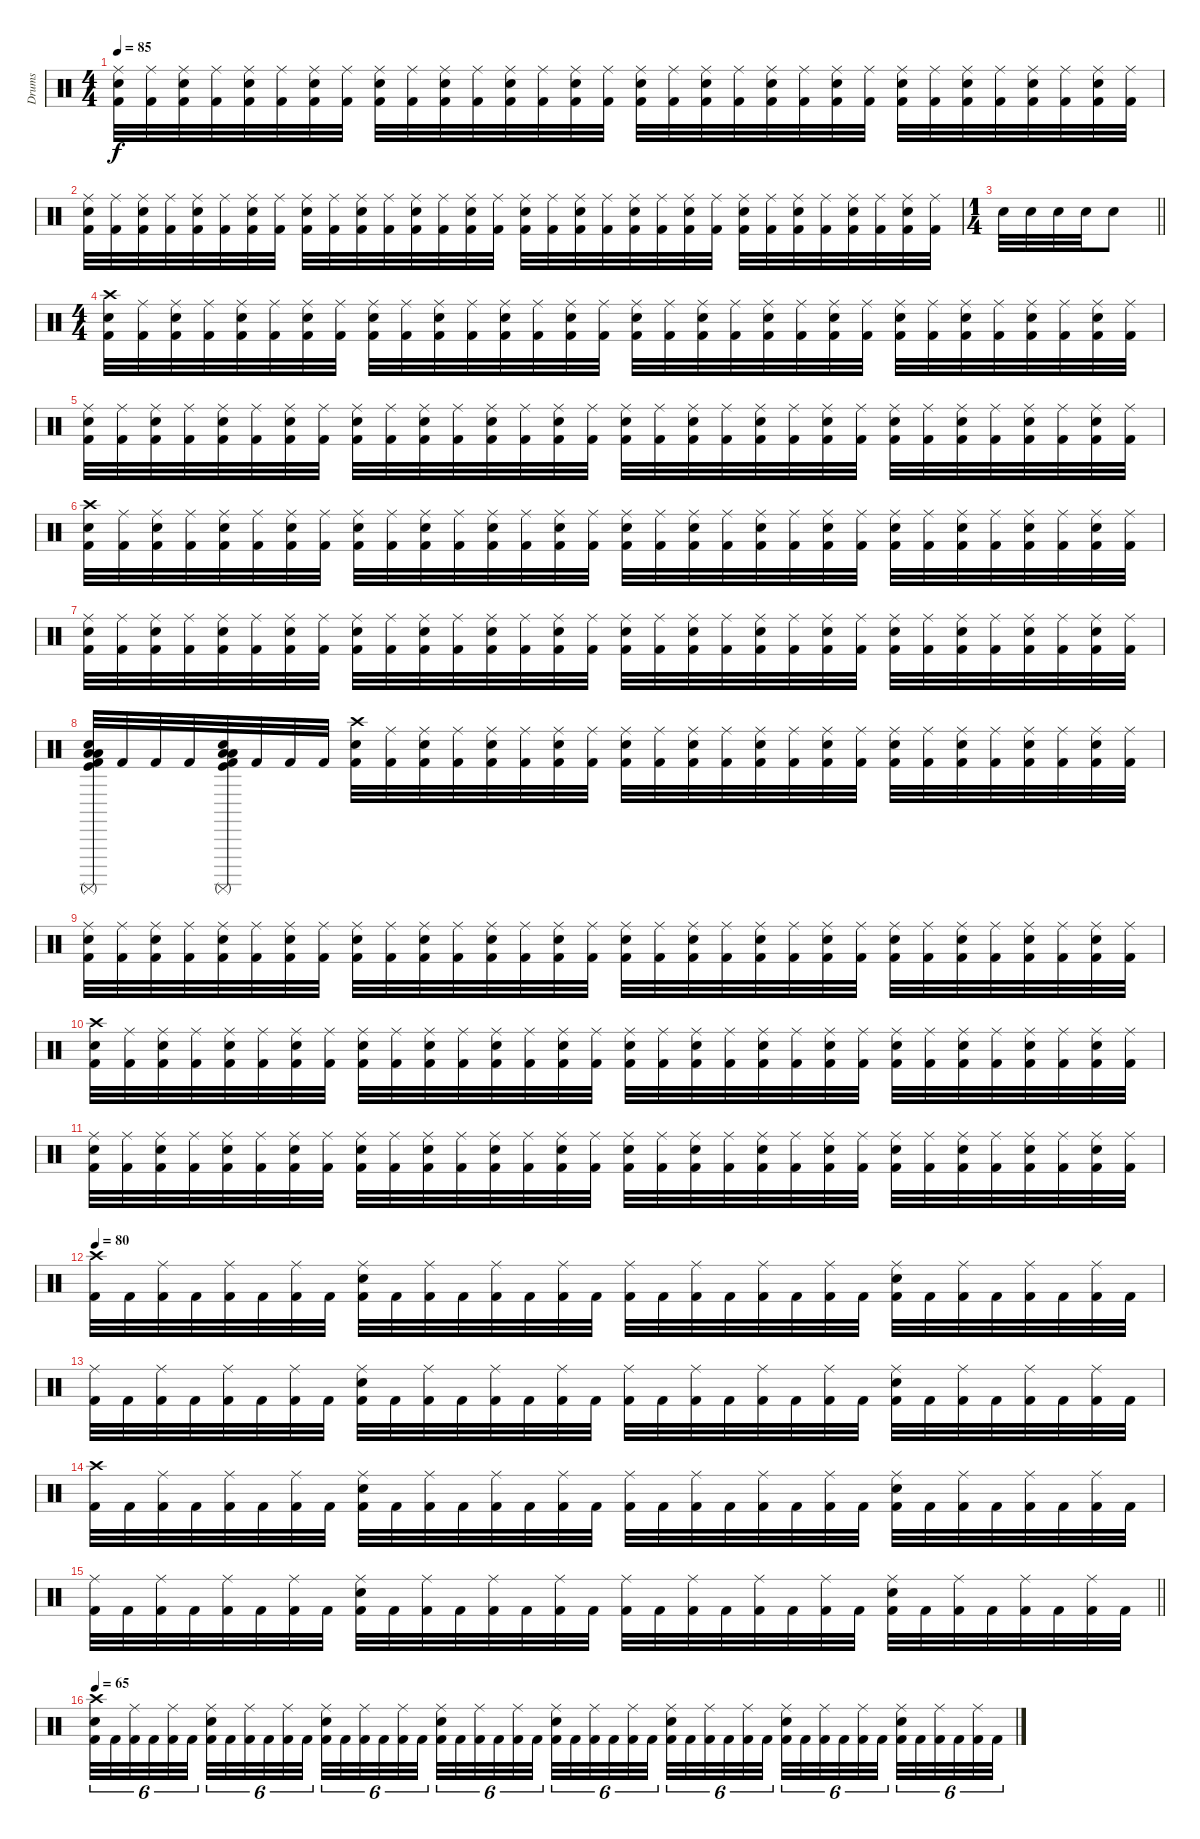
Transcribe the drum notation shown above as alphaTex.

\track ("Drums" "Drums") {instrument percussion}
\staff {score}
\articulation defaults
\ts (4 4)
\tempo 85
\clef neutral
\ks c
("Ride (middle)" "Electric Snare (hit)" "Kick (hit) 2").32{dy f} ("Ride (middle)" "Kick (hit) 2").32 ("Ride (middle)" "Electric Snare (hit)" "Kick (hit) 2").32 ("Ride (middle)" "Kick (hit) 2").32 ("Ride (middle)" "Electric Snare (hit)" "Kick (hit) 2").32 ("Ride (middle)" "Kick (hit) 2").32 ("Ride (middle)" "Electric Snare (hit)" "Kick (hit) 2").32 ("Ride (middle)" "Kick (hit) 2").32 ("Ride (middle)" "Electric Snare (hit)" "Kick (hit) 2").32 ("Ride (middle)" "Kick (hit) 2").32 ("Ride (middle)" "Electric Snare (hit)" "Kick (hit) 2").32 ("Ride (middle)" "Kick (hit) 2").32 ("Ride (middle)" "Electric Snare (hit)" "Kick (hit) 2").32 ("Ride (middle)" "Kick (hit) 2").32 ("Ride (middle)" "Electric Snare (hit)" "Kick (hit) 2").32 ("Ride (middle)" "Kick (hit) 2").32 ("Ride (middle)" "Electric Snare (hit)" "Kick (hit) 2").32 ("Ride (middle)" "Kick (hit) 2").32 ("Ride (middle)" "Electric Snare (hit)" "Kick (hit) 2").32 ("Ride (middle)" "Kick (hit) 2").32 ("Ride (middle)" "Electric Snare (hit)" "Kick (hit) 2").32 ("Ride (middle)" "Kick (hit) 2").32 ("Ride (middle)" "Electric Snare (hit)" "Kick (hit) 2").32 ("Ride (middle)" "Kick (hit) 2").32 ("Ride (middle)" "Electric Snare (hit)" "Kick (hit) 2").32 ("Ride (middle)" "Kick (hit) 2").32 ("Ride (middle)" "Electric Snare (hit)" "Kick (hit) 2").32 ("Ride (middle)" "Kick (hit) 2").32 ("Ride (middle)" "Electric Snare (hit)" "Kick (hit) 2").32 ("Ride (middle)" "Kick (hit) 2").32 ("Ride (middle)" "Electric Snare (hit)" "Kick (hit) 2").32 ("Ride (middle)" "Kick (hit) 2").32 |
("Ride (middle)" "Electric Snare (hit)" "Kick (hit) 2").32 ("Ride (middle)" "Kick (hit) 2").32 ("Ride (middle)" "Electric Snare (hit)" "Kick (hit) 2").32 ("Ride (middle)" "Kick (hit) 2").32 ("Ride (middle)" "Electric Snare (hit)" "Kick (hit) 2").32 ("Ride (middle)" "Kick (hit) 2").32 ("Ride (middle)" "Electric Snare (hit)" "Kick (hit) 2").32 ("Ride (middle)" "Kick (hit) 2").32 ("Ride (middle)" "Electric Snare (hit)" "Kick (hit) 2").32 ("Ride (middle)" "Kick (hit) 2").32 ("Ride (middle)" "Electric Snare (hit)" "Kick (hit) 2").32 ("Ride (middle)" "Kick (hit) 2").32 ("Ride (middle)" "Electric Snare (hit)" "Kick (hit) 2").32 ("Ride (middle)" "Kick (hit) 2").32 ("Ride (middle)" "Electric Snare (hit)" "Kick (hit) 2").32 ("Ride (middle)" "Kick (hit) 2").32 ("Ride (middle)" "Electric Snare (hit)" "Kick (hit) 2").32 ("Ride (middle)" "Kick (hit) 2").32 ("Ride (middle)" "Electric Snare (hit)" "Kick (hit) 2").32 ("Ride (middle)" "Kick (hit) 2").32 ("Ride (middle)" "Electric Snare (hit)" "Kick (hit) 2").32 ("Ride (middle)" "Kick (hit) 2").32 ("Ride (middle)" "Electric Snare (hit)" "Kick (hit) 2").32 ("Ride (middle)" "Kick (hit) 2").32 ("Ride (middle)" "Electric Snare (hit)" "Kick (hit) 2").32 ("Ride (middle)" "Kick (hit) 2").32 ("Ride (middle)" "Electric Snare (hit)" "Kick (hit) 2").32 ("Ride (middle)" "Kick (hit) 2").32 ("Ride (middle)" "Electric Snare (hit)" "Kick (hit) 2").32 ("Ride (middle)" "Kick (hit) 2").32 ("Ride (middle)" "Electric Snare (hit)" "Kick (hit) 2").32 ("Ride (middle)" "Kick (hit) 2").32 |
\ts (1 4)
\barLineRight lightlight "Electric Snare (hit)".32 "Electric Snare (hit)".32 "Electric Snare (hit)".32 "Electric Snare (hit)".32 "Electric Snare (hit)".8
|
\ts (4 4)
("Crash high (hit)" "Electric Snare (hit)" "Kick (hit) 2").32 ("Ride (middle)" "Kick (hit) 2").32 ("Ride (middle)" "Electric Snare (hit)" "Kick (hit) 2").32 ("Ride (middle)" "Kick (hit) 2").32 ("Ride (middle)" "Electric Snare (hit)" "Kick (hit) 2").32 ("Ride (middle)" "Kick (hit) 2").32 ("Ride (middle)" "Electric Snare (hit)" "Kick (hit) 2").32 ("Ride (middle)" "Kick (hit) 2").32 ("Ride (middle)" "Electric Snare (hit)" "Kick (hit) 2").32 ("Ride (middle)" "Kick (hit) 2").32 ("Ride (middle)" "Electric Snare (hit)" "Kick (hit) 2").32 ("Ride (middle)" "Kick (hit) 2").32 ("Ride (middle)" "Electric Snare (hit)" "Kick (hit) 2").32 ("Ride (middle)" "Kick (hit) 2").32 ("Ride (middle)" "Electric Snare (hit)" "Kick (hit) 2").32 ("Ride (middle)" "Kick (hit) 2").32 ("Ride (middle)" "Electric Snare (hit)" "Kick (hit) 2").32 ("Ride (middle)" "Kick (hit) 2").32 ("Ride (middle)" "Electric Snare (hit)" "Kick (hit) 2").32 ("Ride (middle)" "Kick (hit) 2").32 ("Ride (middle)" "Electric Snare (hit)" "Kick (hit) 2").32 ("Ride (middle)" "Kick (hit) 2").32 ("Ride (middle)" "Electric Snare (hit)" "Kick (hit) 2").32 ("Ride (middle)" "Kick (hit) 2").32 ("Ride (middle)" "Electric Snare (hit)" "Kick (hit) 2").32 ("Ride (middle)" "Kick (hit) 2").32 ("Ride (middle)" "Electric Snare (hit)" "Kick (hit) 2").32 ("Ride (middle)" "Kick (hit) 2").32 ("Ride (middle)" "Electric Snare (hit)" "Kick (hit) 2").32 ("Ride (middle)" "Kick (hit) 2").32 ("Ride (middle)" "Electric Snare (hit)" "Kick (hit) 2").32 ("Ride (middle)" "Kick (hit) 2").32 |
("Ride (middle)" "Electric Snare (hit)" "Kick (hit) 2").32 ("Ride (middle)" "Kick (hit) 2").32 ("Ride (middle)" "Electric Snare (hit)" "Kick (hit) 2").32 ("Ride (middle)" "Kick (hit) 2").32 ("Ride (middle)" "Electric Snare (hit)" "Kick (hit) 2").32 ("Ride (middle)" "Kick (hit) 2").32 ("Ride (middle)" "Electric Snare (hit)" "Kick (hit) 2").32 ("Ride (middle)" "Kick (hit) 2").32 ("Ride (middle)" "Electric Snare (hit)" "Kick (hit) 2").32 ("Ride (middle)" "Kick (hit) 2").32 ("Ride (middle)" "Electric Snare (hit)" "Kick (hit) 2").32 ("Ride (middle)" "Kick (hit) 2").32 ("Ride (middle)" "Electric Snare (hit)" "Kick (hit) 2").32 ("Ride (middle)" "Kick (hit) 2").32 ("Ride (middle)" "Electric Snare (hit)" "Kick (hit) 2").32 ("Ride (middle)" "Kick (hit) 2").32 ("Ride (middle)" "Electric Snare (hit)" "Kick (hit) 2").32 ("Ride (middle)" "Kick (hit) 2").32 ("Ride (middle)" "Electric Snare (hit)" "Kick (hit) 2").32 ("Ride (middle)" "Kick (hit) 2").32 ("Ride (middle)" "Electric Snare (hit)" "Kick (hit) 2").32 ("Ride (middle)" "Kick (hit) 2").32 ("Ride (middle)" "Electric Snare (hit)" "Kick (hit) 2").32 ("Ride (middle)" "Kick (hit) 2").32 ("Ride (middle)" "Electric Snare (hit)" "Kick (hit) 2").32 ("Ride (middle)" "Kick (hit) 2").32 ("Ride (middle)" "Electric Snare (hit)" "Kick (hit) 2").32 ("Ride (middle)" "Kick (hit) 2").32 ("Ride (middle)" "Electric Snare (hit)" "Kick (hit) 2").32 ("Ride (middle)" "Kick (hit) 2").32 ("Ride (middle)" "Electric Snare (hit)" "Kick (hit) 2").32 ("Ride (middle)" "Kick (hit) 2").32 |
("Crash high (hit)" "Electric Snare (hit)" "Kick (hit) 2").32 ("Ride (middle)" "Kick (hit) 2").32 ("Ride (middle)" "Electric Snare (hit)" "Kick (hit) 2").32 ("Ride (middle)" "Kick (hit) 2").32 ("Ride (middle)" "Electric Snare (hit)" "Kick (hit) 2").32 ("Ride (middle)" "Kick (hit) 2").32 ("Ride (middle)" "Electric Snare (hit)" "Kick (hit) 2").32 ("Ride (middle)" "Kick (hit) 2").32 ("Ride (middle)" "Electric Snare (hit)" "Kick (hit) 2").32 ("Ride (middle)" "Kick (hit) 2").32 ("Ride (middle)" "Electric Snare (hit)" "Kick (hit) 2").32 ("Ride (middle)" "Kick (hit) 2").32 ("Ride (middle)" "Electric Snare (hit)" "Kick (hit) 2").32 ("Ride (middle)" "Kick (hit) 2").32 ("Ride (middle)" "Electric Snare (hit)" "Kick (hit) 2").32 ("Ride (middle)" "Kick (hit) 2").32 ("Ride (middle)" "Electric Snare (hit)" "Kick (hit) 2").32 ("Ride (middle)" "Kick (hit) 2").32 ("Ride (middle)" "Electric Snare (hit)" "Kick (hit) 2").32 ("Ride (middle)" "Kick (hit) 2").32 ("Ride (middle)" "Electric Snare (hit)" "Kick (hit) 2").32 ("Ride (middle)" "Kick (hit) 2").32 ("Ride (middle)" "Electric Snare (hit)" "Kick (hit) 2").32 ("Ride (middle)" "Kick (hit) 2").32 ("Ride (middle)" "Electric Snare (hit)" "Kick (hit) 2").32 ("Ride (middle)" "Kick (hit) 2").32 ("Ride (middle)" "Electric Snare (hit)" "Kick (hit) 2").32 ("Ride (middle)" "Kick (hit) 2").32 ("Ride (middle)" "Electric Snare (hit)" "Kick (hit) 2").32 ("Ride (middle)" "Kick (hit) 2").32 ("Ride (middle)" "Electric Snare (hit)" "Kick (hit) 2").32 ("Ride (middle)" "Kick (hit) 2").32 |
("Ride (middle)" "Electric Snare (hit)" "Kick (hit) 2").32 ("Ride (middle)" "Kick (hit) 2").32 ("Ride (middle)" "Electric Snare (hit)" "Kick (hit) 2").32 ("Ride (middle)" "Kick (hit) 2").32 ("Ride (middle)" "Electric Snare (hit)" "Kick (hit) 2").32 ("Ride (middle)" "Kick (hit) 2").32 ("Ride (middle)" "Electric Snare (hit)" "Kick (hit) 2").32 ("Ride (middle)" "Kick (hit) 2").32 ("Ride (middle)" "Electric Snare (hit)" "Kick (hit) 2").32 ("Ride (middle)" "Kick (hit) 2").32 ("Ride (middle)" "Electric Snare (hit)" "Kick (hit) 2").32 ("Ride (middle)" "Kick (hit) 2").32 ("Ride (middle)" "Electric Snare (hit)" "Kick (hit) 2").32 ("Ride (middle)" "Kick (hit) 2").32 ("Ride (middle)" "Electric Snare (hit)" "Kick (hit) 2").32 ("Ride (middle)" "Kick (hit) 2").32 ("Ride (middle)" "Electric Snare (hit)" "Kick (hit) 2").32 ("Ride (middle)" "Kick (hit) 2").32 ("Ride (middle)" "Electric Snare (hit)" "Kick (hit) 2").32 ("Ride (middle)" "Kick (hit) 2").32 ("Ride (middle)" "Electric Snare (hit)" "Kick (hit) 2").32 ("Ride (middle)" "Kick (hit) 2").32 ("Ride (middle)" "Electric Snare (hit)" "Kick (hit) 2").32 ("Ride (middle)" "Kick (hit) 2").32 ("Ride (middle)" "Electric Snare (hit)" "Kick (hit) 2").32 ("Ride (middle)" "Kick (hit) 2").32 ("Ride (middle)" "Electric Snare (hit)" "Kick (hit) 2").32 ("Ride (middle)" "Kick (hit) 2").32 ("Ride (middle)" "Electric Snare (hit)" "Kick (hit) 2").32 ("Ride (middle)" "Kick (hit) 2").32 ("Ride (middle)" "Electric Snare (hit)" "Kick (hit) 2").32 ("Ride (middle)" "Kick (hit) 2").32 |
("Surdo (mute)" "Kick (hit)" "Low Floor Tom (hit)" "Electric Snare (hit)" "Low Floor Tom (hit)" "Kick (hit) 2").32 "Kick (hit) 2".32 "Kick (hit) 2".32 "Kick (hit) 2".32 ("Surdo (mute)" "Kick (hit)" "Low Floor Tom (hit)" "Electric Snare (hit)" "Low Floor Tom (hit)" "Kick (hit) 2").32 "Kick (hit) 2".32 "Kick (hit) 2".32 "Kick (hit) 2".32 ("Crash high (hit)" "Electric Snare (hit)" "Kick (hit) 2").32 ("Ride (middle)" "Kick (hit) 2").32 ("Ride (middle)" "Electric Snare (hit)" "Kick (hit) 2").32 ("Ride (middle)" "Kick (hit) 2").32 ("Ride (middle)" "Electric Snare (hit)" "Kick (hit) 2").32 ("Ride (middle)" "Kick (hit) 2").32 ("Ride (middle)" "Electric Snare (hit)" "Kick (hit) 2").32 ("Ride (middle)" "Kick (hit) 2").32 ("Ride (middle)" "Electric Snare (hit)" "Kick (hit) 2").32 ("Ride (middle)" "Kick (hit) 2").32 ("Ride (middle)" "Electric Snare (hit)" "Kick (hit) 2").32 ("Ride (middle)" "Kick (hit) 2").32 ("Ride (middle)" "Electric Snare (hit)" "Kick (hit) 2").32 ("Ride (middle)" "Kick (hit) 2").32 ("Ride (middle)" "Electric Snare (hit)" "Kick (hit) 2").32 ("Ride (middle)" "Kick (hit) 2").32 ("Ride (middle)" "Electric Snare (hit)" "Kick (hit) 2").32 ("Ride (middle)" "Kick (hit) 2").32 ("Ride (middle)" "Electric Snare (hit)" "Kick (hit) 2").32 ("Ride (middle)" "Kick (hit) 2").32 ("Ride (middle)" "Electric Snare (hit)" "Kick (hit) 2").32 ("Ride (middle)" "Kick (hit) 2").32 ("Ride (middle)" "Electric Snare (hit)" "Kick (hit) 2").32 ("Ride (middle)" "Kick (hit) 2").32 |
("Ride (middle)" "Electric Snare (hit)" "Kick (hit) 2").32 ("Ride (middle)" "Kick (hit) 2").32 ("Ride (middle)" "Electric Snare (hit)" "Kick (hit) 2").32 ("Ride (middle)" "Kick (hit) 2").32 ("Ride (middle)" "Electric Snare (hit)" "Kick (hit) 2").32 ("Ride (middle)" "Kick (hit) 2").32 ("Ride (middle)" "Electric Snare (hit)" "Kick (hit) 2").32 ("Ride (middle)" "Kick (hit) 2").32 ("Ride (middle)" "Electric Snare (hit)" "Kick (hit) 2").32 ("Ride (middle)" "Kick (hit) 2").32 ("Ride (middle)" "Electric Snare (hit)" "Kick (hit) 2").32 ("Ride (middle)" "Kick (hit) 2").32 ("Ride (middle)" "Electric Snare (hit)" "Kick (hit) 2").32 ("Ride (middle)" "Kick (hit) 2").32 ("Ride (middle)" "Electric Snare (hit)" "Kick (hit) 2").32 ("Ride (middle)" "Kick (hit) 2").32 ("Ride (middle)" "Electric Snare (hit)" "Kick (hit) 2").32 ("Ride (middle)" "Kick (hit) 2").32 ("Ride (middle)" "Electric Snare (hit)" "Kick (hit) 2").32 ("Ride (middle)" "Kick (hit) 2").32 ("Ride (middle)" "Electric Snare (hit)" "Kick (hit) 2").32 ("Ride (middle)" "Kick (hit) 2").32 ("Ride (middle)" "Electric Snare (hit)" "Kick (hit) 2").32 ("Ride (middle)" "Kick (hit) 2").32 ("Ride (middle)" "Electric Snare (hit)" "Kick (hit) 2").32 ("Ride (middle)" "Kick (hit) 2").32 ("Ride (middle)" "Electric Snare (hit)" "Kick (hit) 2").32 ("Ride (middle)" "Kick (hit) 2").32 ("Ride (middle)" "Electric Snare (hit)" "Kick (hit) 2").32 ("Ride (middle)" "Kick (hit) 2").32 ("Ride (middle)" "Electric Snare (hit)" "Kick (hit) 2").32 ("Ride (middle)" "Kick (hit) 2").32 |
("Crash high (hit)" "Electric Snare (hit)" "Kick (hit) 2").32 ("Ride (middle)" "Kick (hit) 2").32 ("Ride (middle)" "Electric Snare (hit)" "Kick (hit) 2").32 ("Ride (middle)" "Kick (hit) 2").32 ("Ride (middle)" "Electric Snare (hit)" "Kick (hit) 2").32 ("Ride (middle)" "Kick (hit) 2").32 ("Ride (middle)" "Electric Snare (hit)" "Kick (hit) 2").32 ("Ride (middle)" "Kick (hit) 2").32 ("Ride (middle)" "Electric Snare (hit)" "Kick (hit) 2").32 ("Ride (middle)" "Kick (hit) 2").32 ("Ride (middle)" "Electric Snare (hit)" "Kick (hit) 2").32 ("Ride (middle)" "Kick (hit) 2").32 ("Ride (middle)" "Electric Snare (hit)" "Kick (hit) 2").32 ("Ride (middle)" "Kick (hit) 2").32 ("Ride (middle)" "Electric Snare (hit)" "Kick (hit) 2").32 ("Ride (middle)" "Kick (hit) 2").32 ("Ride (middle)" "Electric Snare (hit)" "Kick (hit) 2").32 ("Ride (middle)" "Kick (hit) 2").32 ("Ride (middle)" "Electric Snare (hit)" "Kick (hit) 2").32 ("Ride (middle)" "Kick (hit) 2").32 ("Ride (middle)" "Electric Snare (hit)" "Kick (hit) 2").32 ("Ride (middle)" "Kick (hit) 2").32 ("Ride (middle)" "Electric Snare (hit)" "Kick (hit) 2").32 ("Ride (middle)" "Kick (hit) 2").32 ("Ride (middle)" "Electric Snare (hit)" "Kick (hit) 2").32 ("Ride (middle)" "Kick (hit) 2").32 ("Ride (middle)" "Electric Snare (hit)" "Kick (hit) 2").32 ("Ride (middle)" "Kick (hit) 2").32 ("Ride (middle)" "Electric Snare (hit)" "Kick (hit) 2").32 ("Ride (middle)" "Kick (hit) 2").32 ("Ride (middle)" "Electric Snare (hit)" "Kick (hit) 2").32 ("Ride (middle)" "Kick (hit) 2").32 |
("Ride (middle)" "Electric Snare (hit)" "Kick (hit) 2").32 ("Ride (middle)" "Kick (hit) 2").32 ("Ride (middle)" "Electric Snare (hit)" "Kick (hit) 2").32 ("Ride (middle)" "Kick (hit) 2").32 ("Ride (middle)" "Electric Snare (hit)" "Kick (hit) 2").32 ("Ride (middle)" "Kick (hit) 2").32 ("Ride (middle)" "Electric Snare (hit)" "Kick (hit) 2").32 ("Ride (middle)" "Kick (hit) 2").32 ("Ride (middle)" "Electric Snare (hit)" "Kick (hit) 2").32 ("Ride (middle)" "Kick (hit) 2").32 ("Ride (middle)" "Electric Snare (hit)" "Kick (hit) 2").32 ("Ride (middle)" "Kick (hit) 2").32 ("Ride (middle)" "Electric Snare (hit)" "Kick (hit) 2").32 ("Ride (middle)" "Kick (hit) 2").32 ("Ride (middle)" "Electric Snare (hit)" "Kick (hit) 2").32 ("Ride (middle)" "Kick (hit) 2").32 ("Ride (middle)" "Electric Snare (hit)" "Kick (hit) 2").32 ("Ride (middle)" "Kick (hit) 2").32 ("Ride (middle)" "Electric Snare (hit)" "Kick (hit) 2").32 ("Ride (middle)" "Kick (hit) 2").32 ("Ride (middle)" "Electric Snare (hit)" "Kick (hit) 2").32 ("Ride (middle)" "Kick (hit) 2").32 ("Ride (middle)" "Electric Snare (hit)" "Kick (hit) 2").32 ("Ride (middle)" "Kick (hit) 2").32 ("Ride (middle)" "Electric Snare (hit)" "Kick (hit) 2").32 ("Ride (middle)" "Kick (hit) 2").32 ("Ride (middle)" "Electric Snare (hit)" "Kick (hit) 2").32 ("Ride (middle)" "Kick (hit) 2").32 ("Ride (middle)" "Electric Snare (hit)" "Kick (hit) 2").32 ("Ride (middle)" "Kick (hit) 2").32 ("Ride (middle)" "Electric Snare (hit)" "Kick (hit) 2").32 ("Ride (middle)" "Kick (hit) 2").32 |
\tempo 80
("Crash high (hit)" "Kick (hit) 2").32 "Kick (hit) 2".32 ("Ride (middle)" "Kick (hit) 2").32 "Kick (hit) 2".32 ("Ride (middle)" "Kick (hit) 2").32 "Kick (hit) 2".32 ("Ride (middle)" "Kick (hit) 2").32 "Kick (hit) 2".32 ("Ride (middle)" "Electric Snare (hit)" "Kick (hit) 2").32 "Kick (hit) 2".32 ("Ride (middle)" "Kick (hit) 2").32 "Kick (hit) 2".32 ("Ride (middle)" "Kick (hit) 2").32 "Kick (hit) 2".32 ("Ride (middle)" "Kick (hit) 2").32 "Kick (hit) 2".32 ("Ride (middle)" "Kick (hit) 2").32 "Kick (hit) 2".32 ("Ride (middle)" "Kick (hit) 2").32 "Kick (hit) 2".32 ("Ride (middle)" "Kick (hit) 2").32 "Kick (hit) 2".32 ("Ride (middle)" "Kick (hit) 2").32 "Kick (hit) 2".32 ("Ride (middle)" "Electric Snare (hit)" "Kick (hit) 2").32 "Kick (hit) 2".32 ("Ride (middle)" "Kick (hit) 2").32 "Kick (hit) 2".32 ("Ride (middle)" "Kick (hit) 2").32 "Kick (hit) 2".32 ("Ride (middle)" "Kick (hit) 2").32 "Kick (hit) 2".32 |
("Ride (middle)" "Kick (hit) 2").32 "Kick (hit) 2".32 ("Ride (middle)" "Kick (hit) 2").32 "Kick (hit) 2".32 ("Ride (middle)" "Kick (hit) 2").32 "Kick (hit) 2".32 ("Ride (middle)" "Kick (hit) 2").32 "Kick (hit) 2".32 ("Ride (middle)" "Electric Snare (hit)" "Kick (hit) 2").32 "Kick (hit) 2".32 ("Ride (middle)" "Kick (hit) 2").32 "Kick (hit) 2".32 ("Ride (middle)" "Kick (hit) 2").32 "Kick (hit) 2".32 ("Ride (middle)" "Kick (hit) 2").32 "Kick (hit) 2".32 ("Ride (middle)" "Kick (hit) 2").32 "Kick (hit) 2".32 ("Ride (middle)" "Kick (hit) 2").32 "Kick (hit) 2".32 ("Ride (middle)" "Kick (hit) 2").32 "Kick (hit) 2".32 ("Ride (middle)" "Kick (hit) 2").32 "Kick (hit) 2".32 ("Ride (middle)" "Electric Snare (hit)" "Kick (hit) 2").32 "Kick (hit) 2".32 ("Ride (middle)" "Kick (hit) 2").32 "Kick (hit) 2".32 ("Ride (middle)" "Kick (hit) 2").32 "Kick (hit) 2".32 ("Ride (middle)" "Kick (hit) 2").32 "Kick (hit) 2".32 |
("Crash high (hit)" "Kick (hit) 2").32 "Kick (hit) 2".32 ("Ride (middle)" "Kick (hit) 2").32 "Kick (hit) 2".32 ("Ride (middle)" "Kick (hit) 2").32 "Kick (hit) 2".32 ("Ride (middle)" "Kick (hit) 2").32 "Kick (hit) 2".32 ("Ride (middle)" "Electric Snare (hit)" "Kick (hit) 2").32 "Kick (hit) 2".32 ("Ride (middle)" "Kick (hit) 2").32 "Kick (hit) 2".32 ("Ride (middle)" "Kick (hit) 2").32 "Kick (hit) 2".32 ("Ride (middle)" "Kick (hit) 2").32 "Kick (hit) 2".32 ("Ride (middle)" "Kick (hit) 2").32 "Kick (hit) 2".32 ("Ride (middle)" "Kick (hit) 2").32 "Kick (hit) 2".32 ("Ride (middle)" "Kick (hit) 2").32 "Kick (hit) 2".32 ("Ride (middle)" "Kick (hit) 2").32 "Kick (hit) 2".32 ("Ride (middle)" "Electric Snare (hit)" "Kick (hit) 2").32 "Kick (hit) 2".32 ("Ride (middle)" "Kick (hit) 2").32 "Kick (hit) 2".32 ("Ride (middle)" "Kick (hit) 2").32 "Kick (hit) 2".32 ("Ride (middle)" "Kick (hit) 2").32 "Kick (hit) 2".32 |
\barLineRight lightlight
("Ride (middle)" "Kick (hit) 2").32 "Kick (hit) 2".32 ("Ride (middle)" "Kick (hit) 2").32 "Kick (hit) 2".32 ("Ride (middle)" "Kick (hit) 2").32 "Kick (hit) 2".32 ("Ride (middle)" "Kick (hit) 2").32 "Kick (hit) 2".32 ("Ride (middle)" "Electric Snare (hit)" "Kick (hit) 2").32 "Kick (hit) 2".32 ("Ride (middle)" "Kick (hit) 2").32 "Kick (hit) 2".32 ("Ride (middle)" "Kick (hit) 2").32 "Kick (hit) 2".32 ("Ride (middle)" "Kick (hit) 2").32 "Kick (hit) 2".32 ("Ride (middle)" "Kick (hit) 2").32 "Kick (hit) 2".32 ("Ride (middle)" "Kick (hit) 2").32 "Kick (hit) 2".32 ("Ride (middle)" "Kick (hit) 2").32 "Kick (hit) 2".32 ("Ride (middle)" "Kick (hit) 2").32 "Kick (hit) 2".32 ("Ride (middle)" "Electric Snare (hit)" "Kick (hit) 2").32 "Kick (hit) 2".32 ("Ride (middle)" "Kick (hit) 2").32 "Kick (hit) 2".32 ("Ride (middle)" "Kick (hit) 2").32 "Kick (hit) 2".32 ("Ride (middle)" "Kick (hit) 2").32 "Kick (hit) 2".32 |
\tempo 65
("Crash high (hit)" "Electric Snare (hit)" "Kick (hit) 2").32{tu (6 4)} "Kick (hit) 2".32{tu (6 4)} ("Ride (middle)" "Kick (hit) 2").32{tu (6 4)} "Kick (hit) 2".32{tu (6 4)} ("Ride (middle)" "Kick (hit) 2").32{tu (6 4)} "Kick (hit) 2".32{tu (6 4)} ("Ride (middle)" "Electric Snare (hit)" "Kick (hit) 2").32{tu (6 4)} "Kick (hit) 2".32{tu (6 4)} ("Ride (middle)" "Kick (hit) 2").32{tu (6 4)} "Kick (hit) 2".32{tu (6 4)} ("Ride (middle)" "Kick (hit) 2").32{tu (6 4)} "Kick (hit) 2".32{tu (6 4)} ("Ride (middle)" "Electric Snare (hit)" "Kick (hit) 2").32{tu (6 4)} "Kick (hit) 2".32{tu (6 4)} ("Ride (middle)" "Kick (hit) 2").32{tu (6 4)} "Kick (hit) 2".32{tu (6 4)} ("Ride (middle)" "Kick (hit) 2").32{tu (6 4)} "Kick (hit) 2".32{tu (6 4)} ("Ride (middle)" "Electric Snare (hit)" "Kick (hit) 2").32{tu (6 4)} "Kick (hit) 2".32{tu (6 4)} ("Ride (middle)" "Kick (hit) 2").32{tu (6 4)} "Kick (hit) 2".32{tu (6 4)} ("Ride (middle)" "Kick (hit) 2").32{tu (6 4)} "Kick (hit) 2".32{tu (6 4)} ("Ride (middle)" "Electric Snare (hit)" "Kick (hit) 2").32{tu (6 4)} "Kick (hit) 2".32{tu (6 4)} ("Ride (middle)" "Kick (hit) 2").32{tu (6 4)} "Kick (hit) 2".32{tu (6 4)} ("Ride (middle)" "Kick (hit) 2").32{tu (6 4)} "Kick (hit) 2".32{tu (6 4)} ("Ride (middle)" "Electric Snare (hit)" "Kick (hit) 2").32{tu (6 4)} "Kick (hit) 2".32{tu (6 4)} ("Ride (middle)" "Kick (hit) 2").32{tu (6 4)} "Kick (hit) 2".32{tu (6 4)} ("Ride (middle)" "Kick (hit) 2").32{tu (6 4)} "Kick (hit) 2".32{tu (6 4)} ("Ride (middle)" "Electric Snare (hit)" "Kick (hit) 2").32{tu (6 4)} "Kick (hit) 2".32{tu (6 4)} ("Ride (middle)" "Kick (hit) 2").32{tu (6 4)} "Kick (hit) 2".32{tu (6 4)} ("Ride (middle)" "Kick (hit) 2").32{tu (6 4)} "Kick (hit) 2".32{tu (6 4)} ("Ride (middle)" "Electric Snare (hit)" "Kick (hit) 2").32{tu (6 4)} "Kick (hit) 2".32{tu (6 4)} ("Ride (middle)" "Kick (hit) 2").32{tu (6 4)} "Kick (hit) 2".32{tu (6 4)} ("Ride (middle)" "Kick (hit) 2").32{tu (6 4)} "Kick (hit) 2".32{tu (6 4)}
